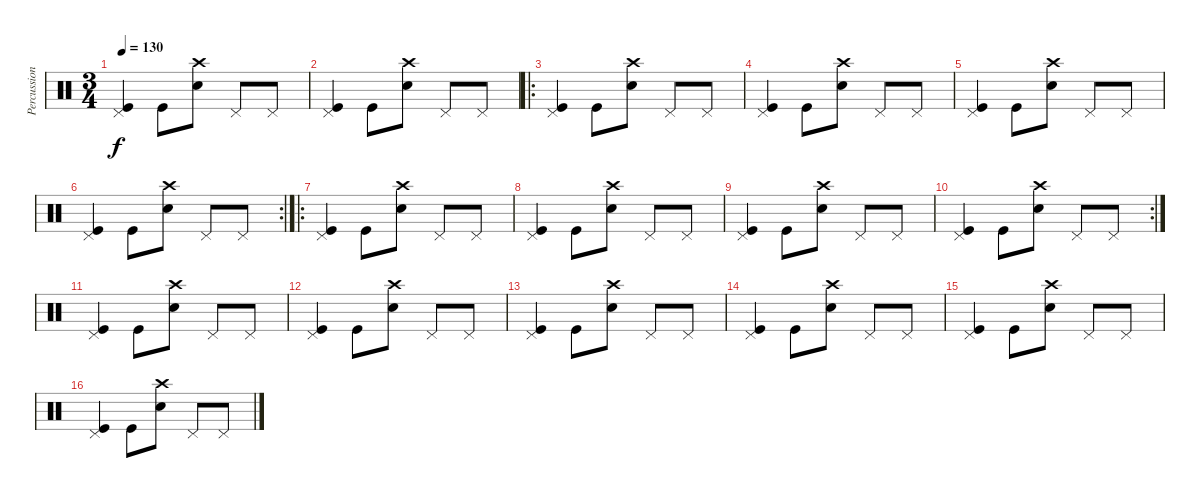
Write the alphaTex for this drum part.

\track ("Percussion" "Percussion") {instrument percussion}
\staff {score}
\articulation defaults
\ts (3 4)
\tempo 130
\clef neutral
\ks c
("Pedal Hi-Hat (hit)" "Kick (hit)").4{dy f} "Kick (hit)".8 ("Crash high (hit)" "Snare (hit) 2").8 "Pedal Hi-Hat (hit)".8 "Pedal Hi-Hat (hit)".8 |
("Pedal Hi-Hat (hit)" "Kick (hit)").4 "Kick (hit)".8 ("Crash high (hit)" "Snare (hit) 2").8 "Pedal Hi-Hat (hit)".8 "Pedal Hi-Hat (hit)".8 |
\ro
("Pedal Hi-Hat (hit)" "Kick (hit)").4 "Kick (hit)".8 ("Crash high (hit)" "Snare (hit) 2").8 "Pedal Hi-Hat (hit)".8 "Pedal Hi-Hat (hit)".8 |
("Pedal Hi-Hat (hit)" "Kick (hit)").4 "Kick (hit)".8 ("Crash high (hit)" "Snare (hit) 2").8 "Pedal Hi-Hat (hit)".8 "Pedal Hi-Hat (hit)".8 |
("Pedal Hi-Hat (hit)" "Kick (hit)").4 "Kick (hit)".8 ("Crash high (hit)" "Snare (hit) 2").8 "Pedal Hi-Hat (hit)".8 "Pedal Hi-Hat (hit)".8 |
\rc 2
("Pedal Hi-Hat (hit)" "Kick (hit)").4 "Kick (hit)".8 ("Crash high (hit)" "Snare (hit) 2").8 "Pedal Hi-Hat (hit)".8 "Pedal Hi-Hat (hit)".8 |
\ro
("Pedal Hi-Hat (hit)" "Kick (hit)").4 "Kick (hit)".8 ("Crash high (hit)" "Snare (hit) 2").8 "Pedal Hi-Hat (hit)".8 "Pedal Hi-Hat (hit)".8 |
("Pedal Hi-Hat (hit)" "Kick (hit)").4 "Kick (hit)".8 ("Crash high (hit)" "Snare (hit) 2").8 "Pedal Hi-Hat (hit)".8 "Pedal Hi-Hat (hit)".8 |
("Pedal Hi-Hat (hit)" "Kick (hit)").4 "Kick (hit)".8 ("Crash high (hit)" "Snare (hit) 2").8 "Pedal Hi-Hat (hit)".8 "Pedal Hi-Hat (hit)".8 |
\rc 2
("Pedal Hi-Hat (hit)" "Kick (hit)").4 "Kick (hit)".8 ("Crash high (hit)" "Snare (hit) 2").8 "Pedal Hi-Hat (hit)".8 "Pedal Hi-Hat (hit)".8 |
("Pedal Hi-Hat (hit)" "Kick (hit)").4 "Kick (hit)".8 ("Crash high (hit)" "Snare (hit) 2").8 "Pedal Hi-Hat (hit)".8 "Pedal Hi-Hat (hit)".8 |
("Pedal Hi-Hat (hit)" "Kick (hit)").4 "Kick (hit)".8 ("Crash high (hit)" "Snare (hit) 2").8 "Pedal Hi-Hat (hit)".8 "Pedal Hi-Hat (hit)".8 |
("Pedal Hi-Hat (hit)" "Kick (hit)").4 "Kick (hit)".8 ("Crash high (hit)" "Snare (hit) 2").8 "Pedal Hi-Hat (hit)".8 "Pedal Hi-Hat (hit)".8 |
("Pedal Hi-Hat (hit)" "Kick (hit)").4 "Kick (hit)".8 ("Crash high (hit)" "Snare (hit) 2").8 "Pedal Hi-Hat (hit)".8 "Pedal Hi-Hat (hit)".8 |
("Pedal Hi-Hat (hit)" "Kick (hit)").4 "Kick (hit)".8 ("Crash high (hit)" "Snare (hit) 2").8 "Pedal Hi-Hat (hit)".8 "Pedal Hi-Hat (hit)".8 |
("Pedal Hi-Hat (hit)" "Kick (hit)").4 "Kick (hit)".8 ("Crash high (hit)" "Snare (hit) 2").8 "Pedal Hi-Hat (hit)".8 "Pedal Hi-Hat (hit)".8
